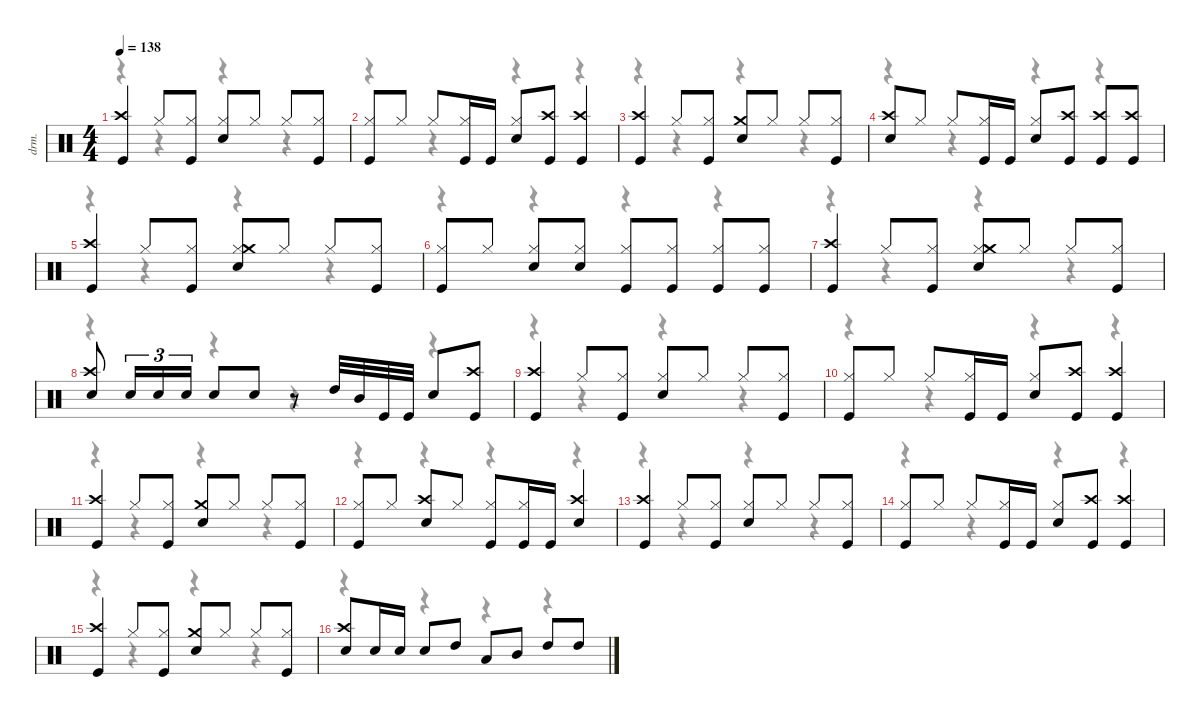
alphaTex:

\defaultSystemsLayout 4
\hideDynamics
\bracketExtendMode nobrackets
\track ("Drumkit" "drm.") {instrument percussion}
\staff {score}
\articulation defaults
\voice
\ts (4 4)
\tempo 138
\clef neutral
\ks c
("Kick (hit)" "Crash high (hit)").4{dy f} "Hi-Hat (closed)".8 ("Hi-Hat (closed)" "Kick (hit)").8 ("Snare (hit) 2" "Hi-Hat (closed)").8 "Hi-Hat (closed)".8 "Hi-Hat (closed)".8 ("Hi-Hat (closed)" "Kick (hit)").8 |
("Kick (hit)" "Hi-Hat (closed)").8 "Hi-Hat (closed)".8 "Hi-Hat (closed)".8 ("Kick (hit)" "Hi-Hat (closed)").16 "Kick (hit)".16 ("Snare (hit) 2" "Hi-Hat (closed)").8 ("Crash high (hit)" "Kick (hit)").8 ("Crash high (hit)" "Kick (hit)").4 |
("Kick (hit)" "Crash high (hit)").4 "Hi-Hat (closed)".8 ("Hi-Hat (closed)" "Kick (hit)").8 ("Snare (hit) 2" "Crash medium (hit)").8 "Hi-Hat (closed)".8 "Hi-Hat (closed)".8 ("Hi-Hat (closed)" "Kick (hit)").8 |
("Crash high (hit)" "Snare (hit) 2").8 "Hi-Hat (closed)".8 "Hi-Hat (closed)".8 ("Kick (hit)" "Hi-Hat (closed)").16 "Kick (hit)".16 ("Snare (hit) 2" "Hi-Hat (closed)").8 ("Crash high (hit)" "Kick (hit)").8 ("Crash high (hit)" "Kick (hit)").8 ("Crash high (hit)" "Kick (hit)").8 |
("Kick (hit)" "Crash high (hit)").4 "Hi-Hat (closed)".8 ("Hi-Hat (closed)" "Kick (hit)").8 ("Snare (hit) 2" "Hi-Hat (closed)" "Crash medium (hit)").8 "Hi-Hat (closed)".8 "Hi-Hat (closed)".8 ("Hi-Hat (closed)" "Kick (hit)").8 |
("Hi-Hat (closed)" "Kick (hit)").8 "Hi-Hat (closed)".8 ("Snare (hit) 2" "Hi-Hat (closed)").8 ("Snare (hit) 2" "Hi-Hat (closed)").8 ("Hi-Hat (closed)" "Kick (hit)").8 ("Hi-Hat (closed)" "Kick (hit)").8 ("Hi-Hat (closed)" "Kick (hit)").8 ("Hi-Hat (closed)" "Kick (hit)").8 |
("Kick (hit)" "Crash high (hit)").4 "Hi-Hat (closed)".8 ("Hi-Hat (closed)" "Kick (hit)").8 ("Snare (hit) 2" "Hi-Hat (closed)" "Crash medium (hit)").8 "Hi-Hat (closed)".8 "Hi-Hat (closed)".8 ("Hi-Hat (closed)" "Kick (hit)").8 |
("Snare (hit) 2" "Crash high (hit)").8 "Snare (hit) 2".16{tu (3 2)} "Snare (hit) 2".16{tu (3 2)} "Snare (hit) 2".16{tu (3 2)} "Snare (hit) 2".8 "Snare (hit) 2".8 r.8 "High Tom (hit)".32 "Mid Tom (hit)".32 "Kick (hit)".32 "Kick (hit)".32 "Snare (hit) 2".8{dy mf} ("Crash high (hit)" "Kick (hit)").8{dy f} |
("Kick (hit)" "Crash high (hit)").4 "Hi-Hat (closed)".8 ("Hi-Hat (closed)" "Kick (hit)").8 ("Snare (hit) 2" "Hi-Hat (closed)").8 "Hi-Hat (closed)".8 "Hi-Hat (closed)".8 ("Hi-Hat (closed)" "Kick (hit)").8 |
("Kick (hit)" "Hi-Hat (closed)").8 "Hi-Hat (closed)".8 "Hi-Hat (closed)".8 ("Kick (hit)" "Hi-Hat (closed)").16 "Kick (hit)".16 ("Snare (hit) 2" "Hi-Hat (closed)").8 ("Crash high (hit)" "Kick (hit)").8 ("Crash high (hit)" "Kick (hit)").4 |
("Kick (hit)" "Crash high (hit)").4 "Hi-Hat (closed)".8 ("Hi-Hat (closed)" "Kick (hit)").8 ("Snare (hit) 2" "Crash medium (hit)").8 "Hi-Hat (closed)".8 "Hi-Hat (closed)".8 ("Hi-Hat (closed)" "Kick (hit)").8 |
("Hi-Hat (closed)" "Kick (hit)").8 "Hi-Hat (closed)".8 ("Crash high (hit)" "Snare (hit) 2").8 "Hi-Hat (closed)".8 ("Hi-Hat (closed)" "Kick (hit)").8 ("Hi-Hat (closed)" "Kick (hit)").16 "Kick (hit)".16 ("Crash high (hit)" "Snare (hit) 2").4 |
("Kick (hit)" "Crash high (hit)").4 "Hi-Hat (closed)".8 ("Hi-Hat (closed)" "Kick (hit)").8 ("Snare (hit) 2" "Hi-Hat (closed)").8 "Hi-Hat (closed)".8 "Hi-Hat (closed)".8 ("Hi-Hat (closed)" "Kick (hit)").8 |
("Hi-Hat (closed)" "Kick (hit)").8 "Hi-Hat (closed)".8 "Hi-Hat (closed)".8 ("Hi-Hat (closed)" "Kick (hit)").16 "Kick (hit)".16 ("Snare (hit) 2" "Hi-Hat (closed)").8 ("Crash high (hit)" "Kick (hit)").8 ("Crash high (hit)" "Kick (hit)").4 |
("Kick (hit)" "Crash high (hit)").4 "Hi-Hat (closed)".8 ("Hi-Hat (closed)" "Kick (hit)").8 ("Snare (hit) 2" "Crash medium (hit)").8 "Hi-Hat (closed)".8 "Hi-Hat (closed)".8 ("Hi-Hat (closed)" "Kick (hit)").8 |
("Snare (hit) 2" "Crash high (hit)").8 "Snare (hit) 2".16 "Snare (hit) 2".16 "Snare (hit) 2".8 "High Tom (hit)".8 "Low Tom (hit)".8 "Mid Tom (hit)".8 "High Tom (hit)".8 "High Tom (hit)".8
\voice
\clef neutral
\ottava regular
\simile none
\ks c
r.4{dy mf} r.4 r.4 r.4 |
r.4 r.4 r.4 r.4 |
r.4 r.4 r.4 r.4 |
r.4 r.4 r.4 r.4 |
r.4 r.4 r.4 r.4 |
r.4 r.4 r.4 r.4 |
r.4 r.4 r.4 r.4 |
r.4 r.4 r.4 r.4 |
r.4 r.4 r.4 r.4 |
r.4 r.4 r.4 r.4 |
r.4 r.4 r.4 r.4 |
r.4 r.4 r.4 r.4 |
r.4 r.4 r.4 r.4 |
r.4 r.4 r.4 r.4 |
r.4 r.4 r.4 r.4 |
r.4 r.4 r.4 r.4
